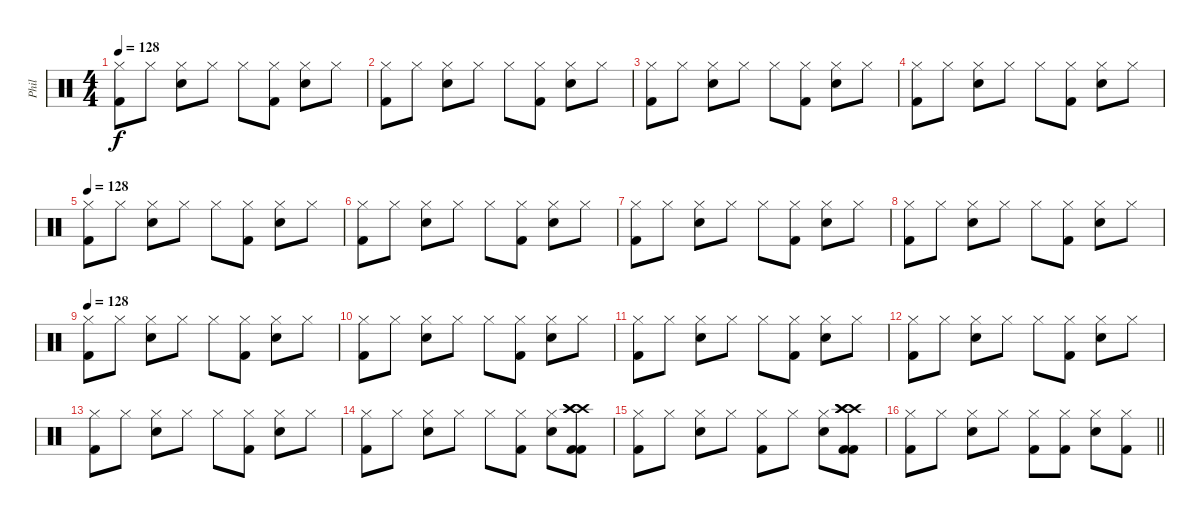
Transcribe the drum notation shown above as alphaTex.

\track ("Phil" "Phil") {instrument percussion}
\staff {score}
\articulation defaults
\ts (4 4)
\tempo 128
\clef neutral
\ks c
("Hi-Hat (closed)" "Kick (hit) 2").8{dy f} "Hi-Hat (closed)".8 ("Hi-Hat (closed)" "Electric Snare (hit)").8 "Hi-Hat (closed)".8 "Hi-Hat (closed)".8 ("Hi-Hat (closed)" "Kick (hit) 2").8 ("Hi-Hat (closed)" "Electric Snare (hit)").8 "Hi-Hat (closed)".8 |
("Hi-Hat (closed)" "Kick (hit) 2").8 "Hi-Hat (closed)".8 ("Hi-Hat (closed)" "Electric Snare (hit)").8 "Hi-Hat (closed)".8 "Hi-Hat (closed)".8 ("Hi-Hat (closed)" "Kick (hit) 2").8 ("Hi-Hat (closed)" "Electric Snare (hit)").8 "Hi-Hat (closed)".8 |
("Hi-Hat (closed)" "Kick (hit) 2").8 "Hi-Hat (closed)".8 ("Hi-Hat (closed)" "Electric Snare (hit)").8 "Hi-Hat (closed)".8 "Hi-Hat (closed)".8 ("Hi-Hat (closed)" "Kick (hit) 2").8 ("Hi-Hat (closed)" "Electric Snare (hit)").8 "Hi-Hat (closed)".8 |
("Hi-Hat (closed)" "Kick (hit) 2").8 "Hi-Hat (closed)".8 ("Hi-Hat (closed)" "Electric Snare (hit)").8 "Hi-Hat (closed)".8 "Hi-Hat (closed)".8 ("Hi-Hat (closed)" "Kick (hit) 2").8 ("Hi-Hat (closed)" "Electric Snare (hit)").8 "Hi-Hat (closed)".8 |
\tempo 128
("Hi-Hat (closed)" "Kick (hit) 2").8 "Hi-Hat (closed)".8 ("Hi-Hat (closed)" "Electric Snare (hit)").8 "Hi-Hat (closed)".8 "Hi-Hat (closed)".8 ("Hi-Hat (closed)" "Kick (hit) 2").8 ("Hi-Hat (closed)" "Electric Snare (hit)").8 "Hi-Hat (closed)".8 |
("Hi-Hat (closed)" "Kick (hit) 2").8 "Hi-Hat (closed)".8 ("Hi-Hat (closed)" "Electric Snare (hit)").8 "Hi-Hat (closed)".8 "Hi-Hat (closed)".8 ("Hi-Hat (closed)" "Kick (hit) 2").8 ("Hi-Hat (closed)" "Electric Snare (hit)").8 "Hi-Hat (closed)".8 |
("Hi-Hat (closed)" "Kick (hit) 2").8 "Hi-Hat (closed)".8 ("Hi-Hat (closed)" "Electric Snare (hit)").8 "Hi-Hat (closed)".8 "Hi-Hat (closed)".8 ("Hi-Hat (closed)" "Kick (hit) 2").8 ("Hi-Hat (closed)" "Electric Snare (hit)").8 "Hi-Hat (closed)".8 |
("Hi-Hat (closed)" "Kick (hit) 2").8 "Hi-Hat (closed)".8 ("Hi-Hat (closed)" "Electric Snare (hit)").8 "Hi-Hat (closed)".8 "Hi-Hat (closed)".8 ("Hi-Hat (closed)" "Kick (hit) 2").8 ("Hi-Hat (closed)" "Electric Snare (hit)").8 "Hi-Hat (closed)".8 |
\tempo 128
("Hi-Hat (closed)" "Kick (hit) 2").8 "Hi-Hat (closed)".8 ("Hi-Hat (closed)" "Electric Snare (hit)").8 "Hi-Hat (closed)".8 "Hi-Hat (closed)".8 ("Hi-Hat (closed)" "Kick (hit) 2").8 ("Hi-Hat (closed)" "Electric Snare (hit)").8 "Hi-Hat (closed)".8 |
("Hi-Hat (closed)" "Kick (hit) 2").8 "Hi-Hat (closed)".8 ("Hi-Hat (closed)" "Electric Snare (hit)").8 "Hi-Hat (closed)".8 "Hi-Hat (closed)".8 ("Hi-Hat (closed)" "Kick (hit) 2").8 ("Hi-Hat (closed)" "Electric Snare (hit)").8 "Hi-Hat (closed)".8 |
("Hi-Hat (closed)" "Kick (hit) 2").8 "Hi-Hat (closed)".8 ("Hi-Hat (closed)" "Electric Snare (hit)").8 "Hi-Hat (closed)".8 "Hi-Hat (closed)".8 ("Hi-Hat (closed)" "Kick (hit) 2").8 ("Hi-Hat (closed)" "Electric Snare (hit)").8 "Hi-Hat (closed)".8 |
("Hi-Hat (closed)" "Kick (hit) 2").8 "Hi-Hat (closed)".8 ("Hi-Hat (closed)" "Electric Snare (hit)").8 "Hi-Hat (closed)".8 "Hi-Hat (closed)".8 ("Hi-Hat (closed)" "Kick (hit) 2").8 ("Hi-Hat (closed)" "Electric Snare (hit)").8 "Hi-Hat (closed)".8 |
("Hi-Hat (closed)" "Kick (hit) 2").8 "Hi-Hat (closed)".8 ("Hi-Hat (closed)" "Electric Snare (hit)").8 "Hi-Hat (closed)".8 "Hi-Hat (closed)".8 ("Hi-Hat (closed)" "Kick (hit) 2").8 ("Hi-Hat (closed)" "Electric Snare (hit)").8 "Hi-Hat (closed)".8 |
("Hi-Hat (closed)" "Kick (hit) 2").8 "Hi-Hat (closed)".8 ("Hi-Hat (closed)" "Electric Snare (hit)").8 "Hi-Hat (closed)".8 "Hi-Hat (closed)".8 ("Hi-Hat (closed)" "Kick (hit) 2").8 ("Hi-Hat (closed)" "Electric Snare (hit)").8 ("Crash high (hit)" "Crash high (hit)" "Crash high (hit)" "Kick (hit) 2" "Kick (hit) 2").8 |
("Hi-Hat (closed)" "Kick (hit) 2").8 "Hi-Hat (closed)".8 ("Hi-Hat (closed)" "Electric Snare (hit)").8 "Hi-Hat (closed)".8 ("Hi-Hat (closed)" "Kick (hit) 2").8 "Hi-Hat (closed)".8 ("Hi-Hat (closed)" "Electric Snare (hit)").8 ("Crash high (hit)" "Crash high (hit)" "Crash high (hit)" "Kick (hit) 2" "Kick (hit) 2").8 |
\barLineRight lightlight
("Hi-Hat (closed)" "Kick (hit) 2").8 "Hi-Hat (closed)".8 ("Hi-Hat (closed)" "Electric Snare (hit)").8 "Hi-Hat (closed)".8 ("Hi-Hat (closed)" "Kick (hit) 2").8 ("Hi-Hat (closed)" "Kick (hit) 2").8 ("Hi-Hat (closed)" "Electric Snare (hit)").8 ("Hi-Hat (closed)" "Kick (hit) 2").8
